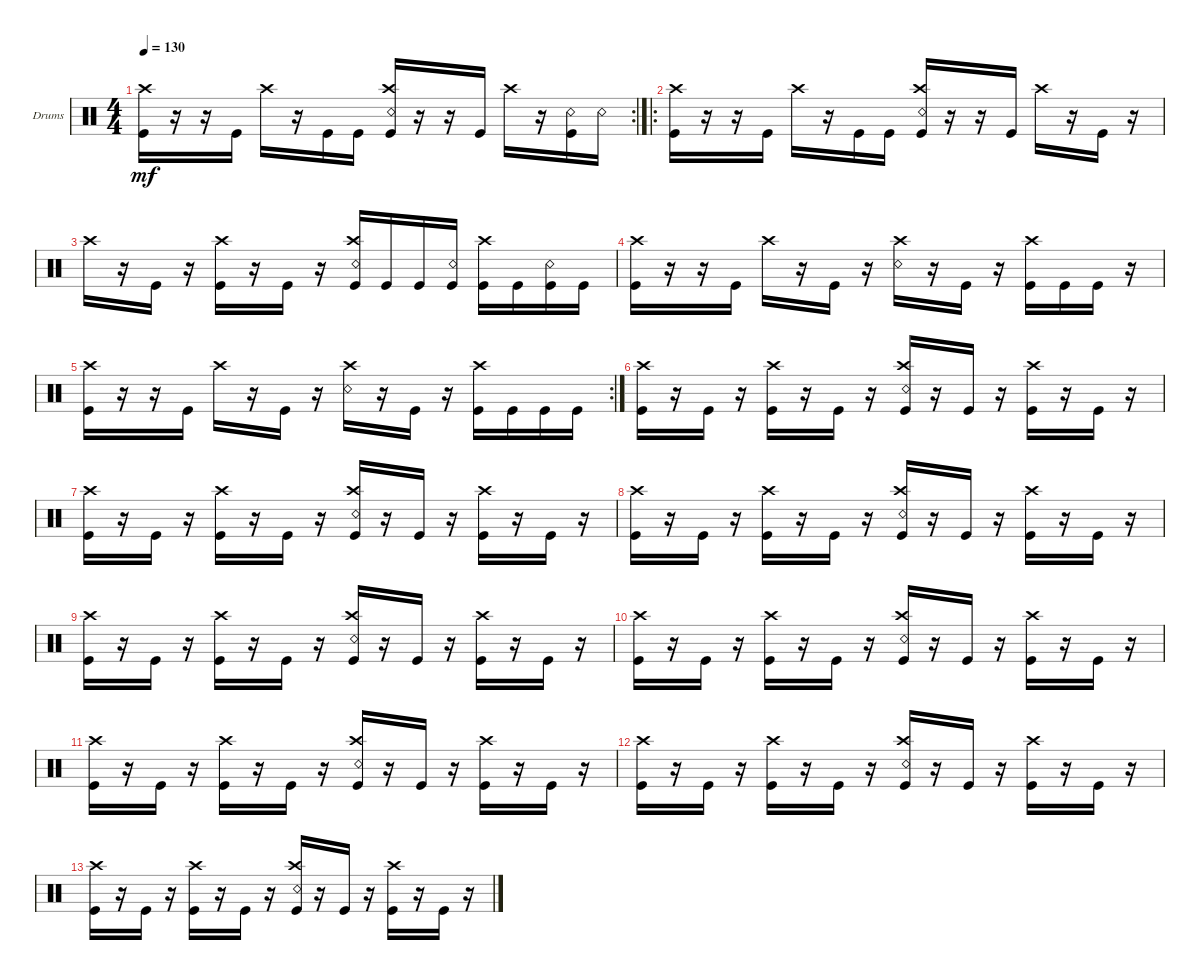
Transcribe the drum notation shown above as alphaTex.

\defaultSystemsLayout 4
\bracketExtendMode groupsimilarinstruments
\firstSystemTrackNameOrientation horizontal
\otherSystemsTrackNameOrientation horizontal
\track ("Drums" "Drums") {instrument percussion}
\staff {score}
\articulation defaults
\rc 2
\ts (4 4)
\tempo 130
\clef neutral
\ks c
("Kick (hit)" "Crash high (hit)").16{dy mf} r.16 r.16 "Kick (hit)".16 "Crash high (hit)".16 r.16 "Kick (hit)".16 "Kick (hit)".16 ("Kick (hit)" "Crash high (hit)" "Snare (rim shot)").16 r.16 r.16 "Kick (hit)".16 "Crash high (hit)".16 r.16 ("Kick (hit)" "Snare (rim shot)").16 "Snare (rim shot)".16 |
\ro
("Kick (hit)" "Crash high (hit)").16 r.16 r.16 "Kick (hit)".16 "Crash high (hit)".16 r.16 "Kick (hit)".16 "Kick (hit)".16 ("Kick (hit)" "Crash high (hit)" "Snare (rim shot)").16 r.16 r.16 "Kick (hit)".16 "Crash high (hit)".16 r.16 "Kick (hit)".16 r.16 |
"Crash high (hit)".16 r.16 "Kick (hit)".16 r.16 ("Crash high (hit)" "Kick (hit)").16 r.16 "Kick (hit)".16 r.16 ("Crash high (hit)" "Kick (hit)" "Snare (rim shot)").16 "Kick (hit)".16 "Kick (hit)".16 ("Kick (hit)" "Snare (rim shot)").16 ("Crash high (hit)" "Kick (hit)").16 "Kick (hit)".16 ("Kick (hit)" "Snare (rim shot)").16 "Kick (hit)".16 |
("Kick (hit)" "Crash high (hit)").16 r.16 r.16 "Kick (hit)".16 "Crash high (hit)".16 r.16 "Kick (hit)".16 r.16 ("Crash high (hit)" "Snare (rim shot)").16 r.16 "Kick (hit)".16 r.16 ("Crash high (hit)" "Kick (hit)").16 "Kick (hit)".16 "Kick (hit)".16 r.16 |
\rc 2
("Kick (hit)" "Crash high (hit)").16 r.16 r.16 "Kick (hit)".16 "Crash high (hit)".16 r.16 "Kick (hit)".16 r.16 ("Crash high (hit)" "Snare (rim shot)").16 r.16 "Kick (hit)".16 r.16 ("Crash high (hit)" "Kick (hit)").16 "Kick (hit)".16 "Kick (hit)".16 "Kick (hit)".16 |
("Kick (hit)" "Crash high (hit)").16 r.16 "Kick (hit)".16 r.16 ("Crash high (hit)" "Kick (hit)").16 r.16 "Kick (hit)".16 r.16 ("Kick (hit)" "Crash high (hit)" "Snare (rim shot)").16 r.16 "Kick (hit)".16 r.16 ("Crash high (hit)" "Kick (hit)").16 r.16 "Kick (hit)".16 r.16 |
("Crash high (hit)" "Kick (hit)").16 r.16 "Kick (hit)".16 r.16 ("Crash high (hit)" "Kick (hit)").16 r.16 "Kick (hit)".16 r.16 ("Crash high (hit)" "Kick (hit)" "Snare (rim shot)").16 r.16 "Kick (hit)".16 r.16 ("Crash high (hit)" "Kick (hit)").16 r.16 "Kick (hit)".16 r.16 |
("Kick (hit)" "Crash high (hit)").16 r.16 "Kick (hit)".16 r.16 ("Crash high (hit)" "Kick (hit)").16 r.16 "Kick (hit)".16 r.16 ("Crash high (hit)" "Snare (rim shot)" "Kick (hit)").16 r.16 "Kick (hit)".16 r.16 ("Crash high (hit)" "Kick (hit)").16 r.16 "Kick (hit)".16 r.16 |
("Kick (hit)" "Crash high (hit)").16 r.16 "Kick (hit)".16 r.16 ("Crash high (hit)" "Kick (hit)").16 r.16 "Kick (hit)".16 r.16 ("Crash high (hit)" "Snare (rim shot)" "Kick (hit)").16 r.16 "Kick (hit)".16 r.16 ("Crash high (hit)" "Kick (hit)").16 r.16 "Kick (hit)".16 r.16 |
("Kick (hit)" "Crash high (hit)").16 r.16 "Kick (hit)".16 r.16 ("Crash high (hit)" "Kick (hit)").16 r.16 "Kick (hit)".16 r.16 ("Kick (hit)" "Crash high (hit)" "Snare (rim shot)").16 r.16 "Kick (hit)".16 r.16 ("Crash high (hit)" "Kick (hit)").16 r.16 "Kick (hit)".16 r.16 |
("Crash high (hit)" "Kick (hit)").16 r.16 "Kick (hit)".16 r.16 ("Crash high (hit)" "Kick (hit)").16 r.16 "Kick (hit)".16 r.16 ("Crash high (hit)" "Kick (hit)" "Snare (rim shot)").16 r.16 "Kick (hit)".16 r.16 ("Crash high (hit)" "Kick (hit)").16 r.16 "Kick (hit)".16 r.16 |
("Kick (hit)" "Crash high (hit)").16 r.16 "Kick (hit)".16 r.16 ("Crash high (hit)" "Kick (hit)").16 r.16 "Kick (hit)".16 r.16 ("Crash high (hit)" "Snare (rim shot)" "Kick (hit)").16 r.16 "Kick (hit)".16 r.16 ("Crash high (hit)" "Kick (hit)").16 r.16 "Kick (hit)".16 r.16 |
("Kick (hit)" "Crash high (hit)").16 r.16 "Kick (hit)".16 r.16 ("Crash high (hit)" "Kick (hit)").16 r.16 "Kick (hit)".16 r.16 ("Crash high (hit)" "Snare (rim shot)" "Kick (hit)").16 r.16 "Kick (hit)".16 r.16 ("Crash high (hit)" "Kick (hit)").16 r.16 "Kick (hit)".16 r.16
